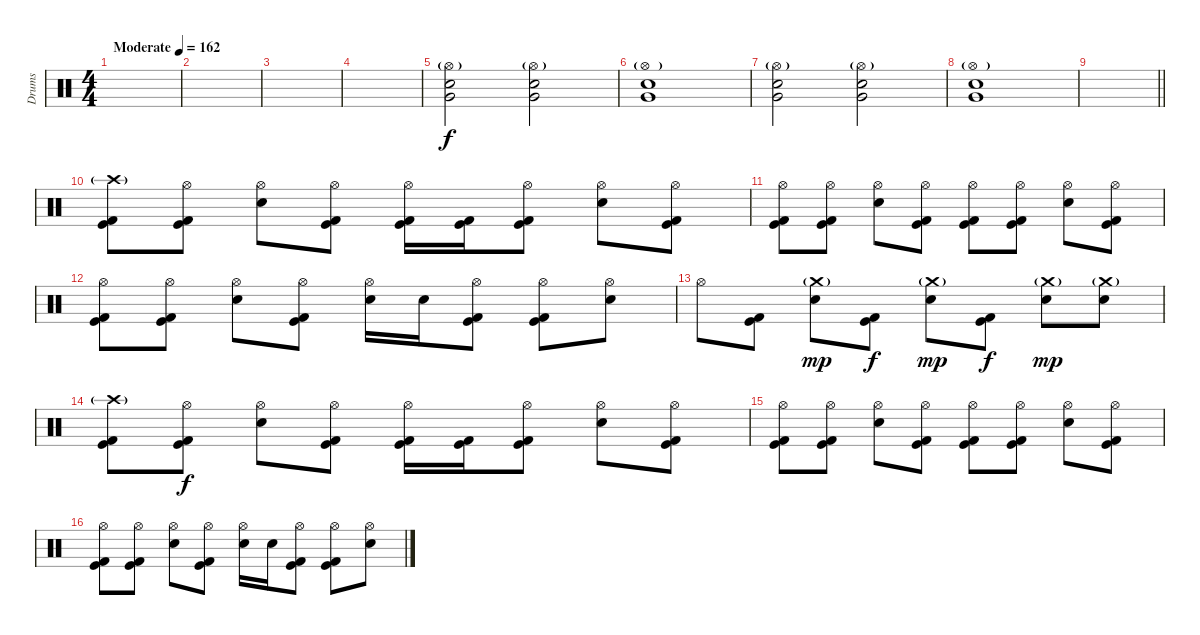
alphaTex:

\track ("Drums" "Drums") {instrument percussion}
\staff {score}
\articulation defaults
\ts (4 4)
\tempo (162 "Moderate")
\clef neutral
\ks c
|
|
|
|
("Hi-Hat (open)"{g} "Electric Snare (hit)" "Very Low Tom (hit)").2 ("Hi-Hat (open)"{g} "Electric Snare (hit)" "Very Low Tom (hit)").2 |
("Hi-Hat (open)"{g} "Electric Snare (hit)" "Very Low Tom (hit)").1 |
("Hi-Hat (open)"{g} "Electric Snare (hit)" "Very Low Tom (hit)").2 ("Hi-Hat (open)"{g} "Electric Snare (hit)" "Very Low Tom (hit)").2 |
("Hi-Hat (open)"{g} "Electric Snare (hit)" "Very Low Tom (hit)").1 |
\barLineRight lightlight
|
\section ("" "")
("Crash high (hit)"{g} "Kick (hit)" "Kick (hit) 2").8 ("Hi-Hat (open)" "Kick (hit)" "Kick (hit) 2").8{dy f} ("Hi-Hat (open)" "Electric Snare (hit)").8 ("Hi-Hat (open)" "Kick (hit)" "Kick (hit) 2").8 ("Hi-Hat (open)" "Kick (hit)" "Kick (hit) 2").16 ("Kick (hit)" "Kick (hit) 2").16 ("Hi-Hat (open)" "Kick (hit)" "Kick (hit) 2").8 ("Hi-Hat (open)" "Electric Snare (hit)").8 ("Hi-Hat (open)" "Kick (hit)" "Kick (hit) 2").8 |
("Hi-Hat (open)" "Kick (hit)" "Kick (hit) 2").8 ("Hi-Hat (open)" "Kick (hit)" "Kick (hit) 2").8 ("Hi-Hat (open)" "Electric Snare (hit)").8 ("Hi-Hat (open)" "Kick (hit)" "Kick (hit) 2").8 ("Hi-Hat (open)" "Kick (hit)" "Kick (hit) 2").8 ("Hi-Hat (open)" "Kick (hit)" "Kick (hit) 2").8 ("Hi-Hat (open)" "Electric Snare (hit)").8 ("Hi-Hat (open)" "Kick (hit)" "Kick (hit) 2").8 |
("Hi-Hat (open)" "Kick (hit)" "Kick (hit) 2").8 ("Hi-Hat (open)" "Kick (hit)" "Kick (hit) 2").8 ("Hi-Hat (open)" "Electric Snare (hit)").8 ("Hi-Hat (open)" "Kick (hit)" "Kick (hit) 2").8 ("Hi-Hat (open)" "Electric Snare (hit)").16 "Electric Snare (hit)".16 ("Hi-Hat (open)" "Kick (hit)" "Kick (hit) 2").8 ("Hi-Hat (open)" "Kick (hit)" "Kick (hit) 2").8 ("Hi-Hat (open)" "Electric Snare (hit)").8 |
"Hi-Hat (open)".8 ("Kick (hit)" "Kick (hit) 2").8 ("Crash medium (hit)"{g} "Electric Snare (hit)").8{dy mp} ("Kick (hit)" "Kick (hit) 2").8{dy f} ("Crash medium (hit)"{g} "Electric Snare (hit)").8{dy mp} ("Kick (hit)" "Kick (hit) 2").8{dy f} ("Crash medium (hit)"{g} "Electric Snare (hit)").8{dy mp} ("Crash medium (hit)"{g} "Electric Snare (hit)").8 |
("Crash high (hit)"{g} "Kick (hit)" "Kick (hit) 2").8 ("Hi-Hat (open)" "Kick (hit)" "Kick (hit) 2").8{dy f} ("Hi-Hat (open)" "Electric Snare (hit)").8 ("Hi-Hat (open)" "Kick (hit)" "Kick (hit) 2").8 ("Hi-Hat (open)" "Kick (hit)" "Kick (hit) 2").16 ("Kick (hit)" "Kick (hit) 2").16 ("Hi-Hat (open)" "Kick (hit)" "Kick (hit) 2").8 ("Hi-Hat (open)" "Electric Snare (hit)").8 ("Hi-Hat (open)" "Kick (hit)" "Kick (hit) 2").8 |
("Hi-Hat (open)" "Kick (hit)" "Kick (hit) 2").8 ("Hi-Hat (open)" "Kick (hit)" "Kick (hit) 2").8 ("Hi-Hat (open)" "Electric Snare (hit)").8 ("Hi-Hat (open)" "Kick (hit)" "Kick (hit) 2").8 ("Hi-Hat (open)" "Kick (hit)" "Kick (hit) 2").8 ("Hi-Hat (open)" "Kick (hit)" "Kick (hit) 2").8 ("Hi-Hat (open)" "Electric Snare (hit)").8 ("Hi-Hat (open)" "Kick (hit)" "Kick (hit) 2").8 |
("Hi-Hat (open)" "Kick (hit)" "Kick (hit) 2").8 ("Hi-Hat (open)" "Kick (hit)" "Kick (hit) 2").8 ("Hi-Hat (open)" "Electric Snare (hit)").8 ("Hi-Hat (open)" "Kick (hit)" "Kick (hit) 2").8 ("Hi-Hat (open)" "Electric Snare (hit)").16 "Electric Snare (hit)".16 ("Hi-Hat (open)" "Kick (hit)" "Kick (hit) 2").8 ("Hi-Hat (open)" "Kick (hit)" "Kick (hit) 2").8 ("Hi-Hat (open)" "Electric Snare (hit)").8
